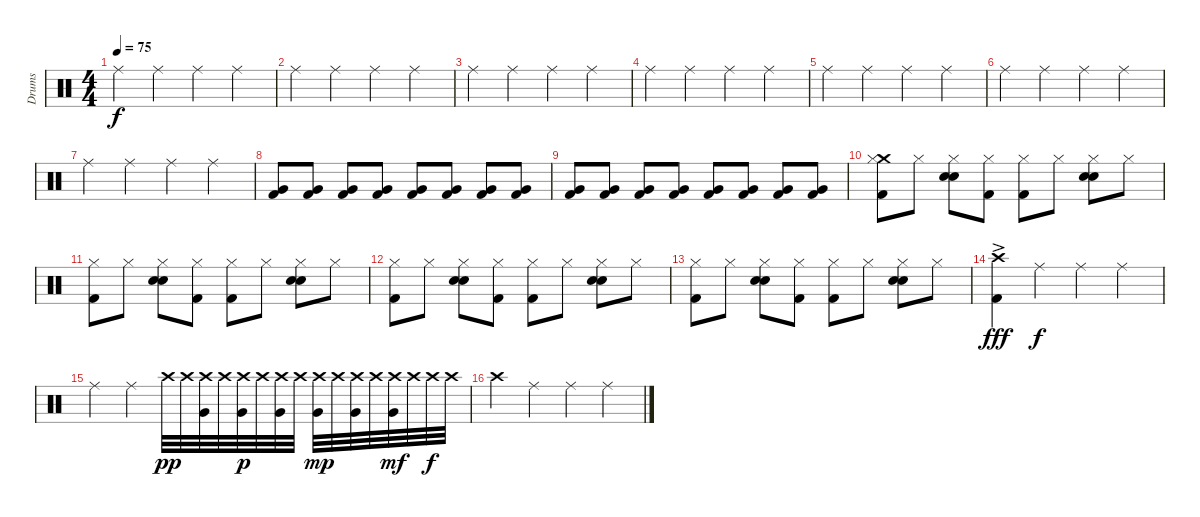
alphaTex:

\track ("Drums" "Drums") {instrument percussion}
\staff {score}
\articulation defaults
\ts (4 4)
\tempo 75
\clef neutral
\ks c "Ride (middle)".4{dy f} "Ride (middle)".4 "Ride (middle)".4 "Ride (middle)".4
|
"Ride (middle)".4 "Ride (middle)".4 "Ride (middle)".4 "Ride (middle)".4 |
"Ride (middle)".4 "Ride (middle)".4 "Ride (middle)".4 "Ride (middle)".4 |
"Ride (middle)".4 "Ride (middle)".4 "Ride (middle)".4 "Ride (middle)".4 |
"Ride (middle)".4 "Ride (middle)".4 "Ride (middle)".4 "Ride (middle)".4 |
"Ride (middle)".4 "Ride (middle)".4 "Ride (middle)".4 "Ride (middle)".4 |
"Ride (middle)".4 "Ride (middle)".4 "Ride (middle)".4 "Ride (middle)".4 |
("Very Low Tom (hit)" "Kick (hit) 2").8 ("Very Low Tom (hit)" "Kick (hit) 2").8 ("Very Low Tom (hit)" "Kick (hit) 2").8 ("Very Low Tom (hit)" "Kick (hit) 2").8 ("Very Low Tom (hit)" "Kick (hit) 2").8 ("Very Low Tom (hit)" "Kick (hit) 2").8 ("Very Low Tom (hit)" "Kick (hit) 2").8 ("Very Low Tom (hit)" "Kick (hit) 2").8 |
("Very Low Tom (hit)" "Kick (hit) 2").8 ("Very Low Tom (hit)" "Kick (hit) 2").8 ("Very Low Tom (hit)" "Kick (hit) 2").8 ("Very Low Tom (hit)" "Kick (hit) 2").8 ("Very Low Tom (hit)" "Kick (hit) 2").8 ("Very Low Tom (hit)" "Kick (hit) 2").8 ("Very Low Tom (hit)" "Kick (hit) 2").8 ("Very Low Tom (hit)" "Kick (hit) 2").8 |
("Crash medium (hit)" "Kick (hit) 2" "Hi-Hat (closed)").8 "Hi-Hat (closed)".8 ("Electric Snare (hit)" "Snare (hit) 2" "Hi-Hat (closed)").8 ("Kick (hit) 2" "Hi-Hat (closed)").8 ("Kick (hit) 2" "Hi-Hat (closed)").8 "Hi-Hat (closed)".8 ("Electric Snare (hit)" "Snare (hit) 2" "Hi-Hat (closed)").8 "Hi-Hat (closed)".8 |
("Kick (hit) 2" "Hi-Hat (closed)").8 "Hi-Hat (closed)".8 ("Electric Snare (hit)" "Snare (hit) 2" "Hi-Hat (closed)").8 ("Kick (hit) 2" "Hi-Hat (closed)").8 ("Kick (hit) 2" "Hi-Hat (closed)").8 "Hi-Hat (closed)".8 ("Electric Snare (hit)" "Snare (hit) 2" "Hi-Hat (closed)").8 "Hi-Hat (closed)".8 |
("Kick (hit) 2" "Hi-Hat (closed)").8 "Hi-Hat (closed)".8 ("Electric Snare (hit)" "Snare (hit) 2" "Hi-Hat (closed)").8 ("Kick (hit) 2" "Hi-Hat (closed)").8 ("Kick (hit) 2" "Hi-Hat (closed)").8 "Hi-Hat (closed)".8 ("Electric Snare (hit)" "Snare (hit) 2" "Hi-Hat (closed)").8 "Hi-Hat (closed)".8 |
("Kick (hit) 2" "Hi-Hat (closed)").8 "Hi-Hat (closed)".8 ("Electric Snare (hit)" "Snare (hit) 2" "Hi-Hat (closed)").8 ("Kick (hit) 2" "Hi-Hat (closed)").8 ("Kick (hit) 2" "Hi-Hat (closed)").8 "Hi-Hat (closed)".8 ("Electric Snare (hit)" "Snare (hit) 2" "Hi-Hat (closed)").8 "Hi-Hat (closed)".8 |
("Crash high (hit)"{ac} "Kick (hit) 2").4{dy fff} "Ride (middle)".4{dy f} "Ride (middle)".4 "Ride (middle)".4 |
"Ride (middle)".4 "Ride (middle)".4 "Crash high (hit)".32{dy pp} "Crash high (hit)".32 ("Crash high (hit)" "Very Low Tom (hit)").32 "Crash high (hit)".32 ("Crash high (hit)" "Very Low Tom (hit)").32{dy p} "Crash high (hit)".32 ("Crash high (hit)" "Very Low Tom (hit)").32 "Crash high (hit)".32 ("Crash high (hit)" "Very Low Tom (hit)").32{dy mp} "Crash high (hit)".32 ("Crash high (hit)" "Very Low Tom (hit)").32 "Crash high (hit)".32 ("Crash high (hit)" "Very Low Tom (hit)").32{dy mf} "Crash high (hit)".32 "Crash high (hit)".32{dy f} "Crash high (hit)".32 |
"Crash high (hit)".4 "Ride (middle)".4 "Ride (middle)".4 "Ride (middle)".4
